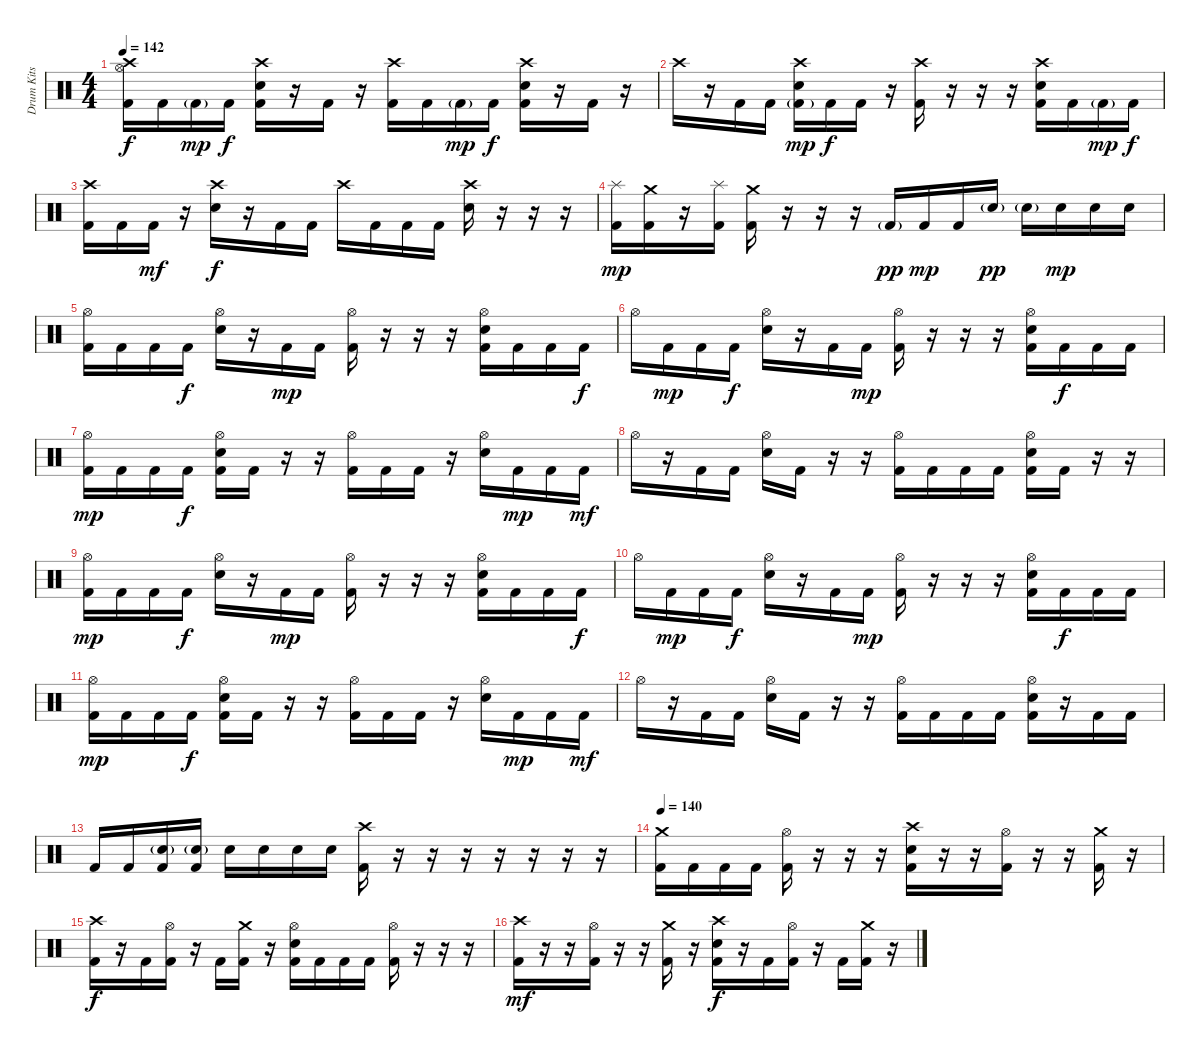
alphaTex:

\track ("Drum Kits" "Drum Kits") {instrument percussion}
\staff {score}
\articulation defaults
\ts (4 4)
\tempo 142
\clef neutral
\ks c
("Crash high (hit)" "Hi-Hat (open)" "Kick (hit) 2").16{dy f} "Kick (hit) 2".16 "Kick (hit) 2"{g}.16{dy mp} "Kick (hit) 2".16{dy f} ("Crash high (hit)" "Electric Snare (hit)" "Kick (hit) 2").16 r.16 "Kick (hit) 2".16 r.16 ("Crash high (hit)" "Kick (hit) 2").16 "Kick (hit) 2".16 "Kick (hit) 2"{g}.16{dy mp} "Kick (hit) 2".16{dy f} ("Crash high (hit)" "Electric Snare (hit)" "Kick (hit) 2").16 r.16 "Kick (hit) 2".16 r.16 |
"Crash high (hit)".16 r.16 "Kick (hit) 2".16 "Kick (hit) 2".16 ("Crash high (hit)" "Electric Snare (hit)" "Kick (hit) 2"{g}).16{dy mp} "Kick (hit) 2".16{dy f} "Kick (hit) 2".16 r.16 ("Crash high (hit)" "Kick (hit) 2").16 r.16 r.16 r.16 ("Crash high (hit)" "Electric Snare (hit)" "Kick (hit) 2").16 "Kick (hit) 2".16 "Kick (hit) 2"{g}.16{dy mp} "Kick (hit) 2".16{dy f} |
("Crash high (hit)" "Kick (hit) 2").16 "Kick (hit) 2".16 "Kick (hit) 2".16{dy mf} r.16 ("Crash high (hit)" "Electric Snare (hit)").16{dy f} r.16 "Kick (hit) 2".16 "Kick (hit) 2".16 "Crash high (hit)".16 "Kick (hit) 2".16 "Kick (hit) 2".16 "Kick (hit) 2".16 ("Crash high (hit)" "Electric Snare (hit)").16 r.16 r.16 r.16 |
("Splash (hit)" "Kick (hit) 2").16{dy mp} ("Crash medium (hit)" "Kick (hit) 2").16 r.16 ("Splash (hit)" "Kick (hit) 2").16 ("Crash medium (hit)" "Kick (hit) 2").16 r.16 r.16 r.16 "Kick (hit) 2"{g}.16{dy pp} "Kick (hit) 2".16{dy mp} "Kick (hit) 2".16 "Electric Snare (hit)"{g}.16{dy pp} "Electric Snare (hit)"{g}.16 "Electric Snare (hit)".16{dy mp} "Electric Snare (hit)".16 "Electric Snare (hit)".16 |
("Hi-Hat (open)" "Kick (hit) 2").16 "Kick (hit) 2".16 "Kick (hit) 2".16 "Kick (hit) 2".16{dy f} ("Hi-Hat (open)" "Electric Snare (hit)").16 r.16 "Kick (hit) 2".16{dy mp} "Kick (hit) 2".16 ("Hi-Hat (open)" "Kick (hit) 2").16 r.16 r.16 r.16 ("Hi-Hat (open)" "Electric Snare (hit)" "Kick (hit) 2").16 "Kick (hit) 2".16 "Kick (hit) 2".16 "Kick (hit) 2".16{dy f} |
"Hi-Hat (open)".16 "Kick (hit) 2".16{dy mp} "Kick (hit) 2".16 "Kick (hit) 2".16{dy f} ("Hi-Hat (open)" "Electric Snare (hit)").16 r.16 "Kick (hit) 2".16 "Kick (hit) 2".16{dy mp} ("Hi-Hat (open)" "Kick (hit) 2").16 r.16 r.16 r.16 ("Hi-Hat (open)" "Electric Snare (hit)" "Kick (hit) 2").16 "Kick (hit) 2".16{dy f} "Kick (hit) 2".16 "Kick (hit) 2".16 |
("Hi-Hat (open)" "Kick (hit) 2").16{dy mp} "Kick (hit) 2".16 "Kick (hit) 2".16 "Kick (hit) 2".16{dy f} ("Hi-Hat (open)" "Electric Snare (hit)" "Kick (hit) 2").16 "Kick (hit) 2".16 r.16 r.16 ("Hi-Hat (open)" "Kick (hit) 2").16 "Kick (hit) 2".16 "Kick (hit) 2".16 r.16 ("Hi-Hat (open)" "Electric Snare (hit)").16 "Kick (hit) 2".16{dy mp} "Kick (hit) 2".16 "Kick (hit) 2".16{dy mf} |
"Hi-Hat (open)".16 r.16 "Kick (hit) 2".16 "Kick (hit) 2".16 ("Hi-Hat (open)" "Electric Snare (hit)").16 "Kick (hit) 2".16 r.16 r.16 ("Hi-Hat (open)" "Kick (hit) 2").16 "Kick (hit) 2".16 "Kick (hit) 2".16 "Kick (hit) 2".16 ("Hi-Hat (open)" "Electric Snare (hit)" "Kick (hit) 2").16 "Kick (hit) 2".16 r.16 r.16 |
("Hi-Hat (open)" "Kick (hit) 2").16{dy mp} "Kick (hit) 2".16 "Kick (hit) 2".16 "Kick (hit) 2".16{dy f} ("Hi-Hat (open)" "Electric Snare (hit)").16 r.16 "Kick (hit) 2".16{dy mp} "Kick (hit) 2".16 ("Hi-Hat (open)" "Kick (hit) 2").16 r.16 r.16 r.16 ("Hi-Hat (open)" "Electric Snare (hit)" "Kick (hit) 2").16 "Kick (hit) 2".16 "Kick (hit) 2".16 "Kick (hit) 2".16{dy f} |
"Hi-Hat (open)".16 "Kick (hit) 2".16{dy mp} "Kick (hit) 2".16 "Kick (hit) 2".16{dy f} ("Hi-Hat (open)" "Electric Snare (hit)").16 r.16 "Kick (hit) 2".16 "Kick (hit) 2".16{dy mp} ("Hi-Hat (open)" "Kick (hit) 2").16 r.16 r.16 r.16 ("Hi-Hat (open)" "Electric Snare (hit)" "Kick (hit) 2").16 "Kick (hit) 2".16{dy f} "Kick (hit) 2".16 "Kick (hit) 2".16 |
("Hi-Hat (open)" "Kick (hit) 2").16{dy mp} "Kick (hit) 2".16 "Kick (hit) 2".16 "Kick (hit) 2".16{dy f} ("Hi-Hat (open)" "Electric Snare (hit)" "Kick (hit) 2").16 "Kick (hit) 2".16 r.16 r.16 ("Hi-Hat (open)" "Kick (hit) 2").16 "Kick (hit) 2".16 "Kick (hit) 2".16 r.16 ("Hi-Hat (open)" "Electric Snare (hit)").16 "Kick (hit) 2".16{dy mp} "Kick (hit) 2".16 "Kick (hit) 2".16{dy mf} |
"Hi-Hat (open)".16 r.16 "Kick (hit) 2".16 "Kick (hit) 2".16 ("Hi-Hat (open)" "Electric Snare (hit)").16 "Kick (hit) 2".16 r.16 r.16 ("Hi-Hat (open)" "Kick (hit) 2").16 "Kick (hit) 2".16 "Kick (hit) 2".16 "Kick (hit) 2".16 ("Hi-Hat (open)" "Electric Snare (hit)" "Kick (hit) 2").16 r.16 "Kick (hit) 2".16 "Kick (hit) 2".16 |
"Kick (hit) 2".16 "Kick (hit) 2".16 ("Electric Snare (hit)"{g} "Kick (hit) 2").16 ("Electric Snare (hit)"{g} "Kick (hit) 2").16 "Electric Snare (hit)".16 "Electric Snare (hit)".16 "Electric Snare (hit)".16 "Electric Snare (hit)".16 ("Crash high (hit)" "Kick (hit) 2").16 r.16 r.16 r.16 r.16 r.16 r.16 r.16 |
\tempo 140
("Crash medium (hit)" "Kick (hit) 2").16 "Kick (hit) 2".16 "Kick (hit) 2".16 "Kick (hit) 2".16 ("Hi-Hat (open)" "Kick (hit) 2").16 r.16 r.16 r.16 ("Crash high (hit)" "Electric Snare (hit)" "Kick (hit) 2").16 r.16 r.16 ("Hi-Hat (open)" "Kick (hit) 2").16 r.16 r.16 ("Crash medium (hit)" "Kick (hit) 2").16 r.16 |
("Crash high (hit)" "Kick (hit) 2").16{dy f} r.16 "Kick (hit) 2".16 ("Hi-Hat (open)" "Kick (hit) 2").16 r.16 "Kick (hit) 2".16 ("Crash medium (hit)" "Kick (hit) 2").16 r.16 ("Hi-Hat (open)" "Electric Snare (hit)" "Kick (hit) 2").16 "Kick (hit) 2".16 "Kick (hit) 2".16 "Kick (hit) 2".16 ("Hi-Hat (open)" "Kick (hit) 2").16 r.16 r.16 r.16 |
("Crash high (hit)" "Kick (hit) 2").16{dy mf} r.16 r.16 ("Hi-Hat (open)" "Kick (hit) 2").16 r.16 r.16 ("Crash medium (hit)" "Kick (hit) 2").16 r.16 ("Crash high (hit)" "Electric Snare (hit)" "Kick (hit) 2").16{dy f} r.16 "Kick (hit) 2".16 ("Hi-Hat (open)" "Kick (hit) 2").16 r.16 "Kick (hit) 2".16 ("Crash medium (hit)" "Kick (hit) 2").16 r.16
